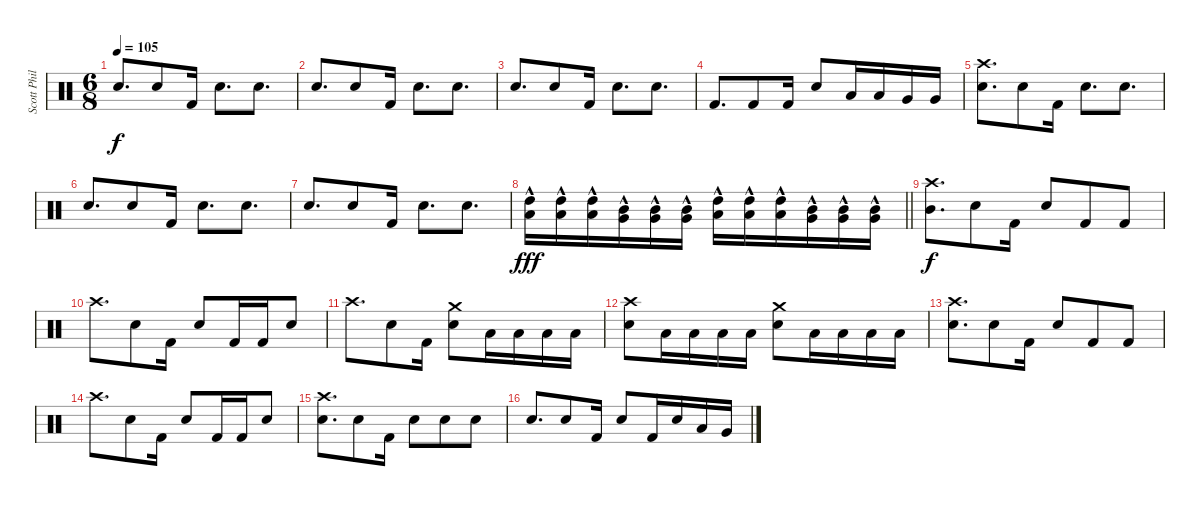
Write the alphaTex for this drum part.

\track ("Scott Phillips (Drums)" "Scott Phil") {instrument percussion}
\staff {score}
\articulation defaults
\ts (6 8)
\tempo 105
\clef neutral
\ks c "Electric Snare (hit)".8{d dy f} "Electric Snare (hit)".8 "Kick (hit) 2".16 "Electric Snare (hit)".8{d} "Electric Snare (hit)".8{d}
|
"Electric Snare (hit)".8{d} "Electric Snare (hit)".8 "Kick (hit) 2".16 "Electric Snare (hit)".8{d} "Electric Snare (hit)".8{d} |
"Electric Snare (hit)".8{d} "Electric Snare (hit)".8 "Kick (hit) 2".16 "Electric Snare (hit)".8{d} "Electric Snare (hit)".8{d} |
"Kick (hit) 2".8{d} "Kick (hit) 2".8 "Kick (hit) 2".16 "Electric Snare (hit)".8 "Low Tom (hit)".16 "Low Tom (hit)".16 "Very Low Tom (hit)".16 "Very Low Tom (hit)".16 |
("Crash high (hit)" "Electric Snare (hit)").8{d} "Electric Snare (hit)".8 "Kick (hit) 2".16 "Electric Snare (hit)".8{d} "Electric Snare (hit)".8{d} |
"Electric Snare (hit)".8{d} "Electric Snare (hit)".8 "Kick (hit) 2".16 "Electric Snare (hit)".8{d} "Electric Snare (hit)".8{d} |
"Electric Snare (hit)".8{d} "Electric Snare (hit)".8 "Kick (hit) 2".16 "Electric Snare (hit)".8{d} "Electric Snare (hit)".8{d} |
\barLineRight lightlight
("Low Tom (hit)"{hac} "High Tom (hit)"{hac}).16{dy fff} ("Low Tom (hit)"{hac} "High Tom (hit)"{hac}).16 ("Low Tom (hit)"{hac} "High Tom (hit)"{hac}).16 ("Very Low Tom (hit)"{hac} "Mid Tom (hit)"{hac}).16 ("Very Low Tom (hit)"{hac} "Mid Tom (hit)"{hac}).16 ("Very Low Tom (hit)"{hac} "Mid Tom (hit)"{hac}).16 ("Low Tom (hit)"{hac} "High Tom (hit)"{hac}).16 ("Low Tom (hit)"{hac} "High Tom (hit)"{hac}).16 ("Low Tom (hit)"{hac} "High Tom (hit)"{hac}).16 ("Very Low Tom (hit)"{hac} "Mid Tom (hit)"{hac}).16 ("Very Low Tom (hit)"{hac} "Mid Tom (hit)"{hac}).16 ("Very Low Tom (hit)"{hac} "Mid Tom (hit)"{hac}).16 |
("Crash high (hit)" "Mid Tom (hit)").8{d dy f} "Electric Snare (hit)".8 "Kick (hit) 2".16 "Electric Snare (hit)".8 "Kick (hit) 2".8 "Kick (hit) 2".8 |
"Crash high (hit)".8{d} "Electric Snare (hit)".8 "Kick (hit) 2".16 "Electric Snare (hit)".8 "Kick (hit) 2".16 "Kick (hit) 2".16 "Electric Snare (hit)".8 |
"Crash high (hit)".8{d} "Electric Snare (hit)".8 "Kick (hit) 2".16 ("Crash medium (hit)" "Electric Snare (hit)").8 "Low Tom (hit)".16 "Low Tom (hit)".16 "Low Tom (hit)".16 "Low Tom (hit)".16 |
("Crash high (hit)" "Electric Snare (hit)").8 "Low Tom (hit)".16 "Low Tom (hit)".16 "Low Tom (hit)".16 "Low Tom (hit)".16 ("Crash medium (hit)" "Electric Snare (hit)").8 "Low Tom (hit)".16 "Low Tom (hit)".16 "Low Tom (hit)".16 "Low Tom (hit)".16 |
("Crash high (hit)" "Electric Snare (hit)").8{d} "Electric Snare (hit)".8 "Kick (hit) 2".16 "Electric Snare (hit)".8 "Kick (hit) 2".8 "Kick (hit) 2".8 |
"Crash high (hit)".8{d} "Electric Snare (hit)".8 "Kick (hit) 2".16 "Electric Snare (hit)".8 "Kick (hit) 2".16 "Kick (hit) 2".16 "Electric Snare (hit)".8 |
("Crash high (hit)" "Electric Snare (hit)").8{d} "Electric Snare (hit)".8 "Kick (hit) 2".16 "Electric Snare (hit)".8 "Electric Snare (hit)".8 "Electric Snare (hit)".8 |
"Electric Snare (hit)".8{d} "Electric Snare (hit)".8 "Kick (hit) 2".16 "Electric Snare (hit)".8 "Kick (hit) 2".16 "Electric Snare (hit)".16 "Low Tom (hit)".16 "Very Low Tom (hit)".16
